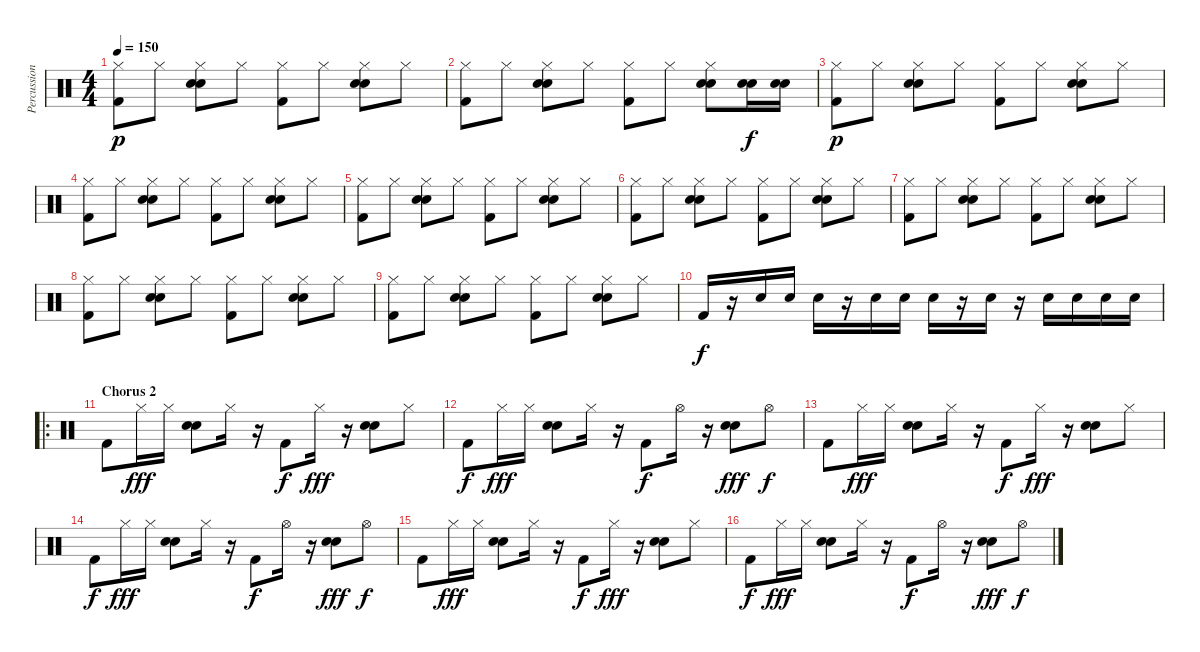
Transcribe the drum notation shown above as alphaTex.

\track ("Percussions" "Percussion") {instrument percussion}
\staff {score}
\articulation defaults
\ts (4 4)
\tempo 150
\clef neutral
\ks c
("Kick (hit) 2" "Hi-Hat (closed)").8{dy p} "Hi-Hat (closed)".8 ("Electric Snare (hit)" "Snare (hit) 2" "Hi-Hat (closed)").8 "Hi-Hat (closed)".8 ("Kick (hit) 2" "Hi-Hat (closed)").8 "Hi-Hat (closed)".8 ("Electric Snare (hit)" "Snare (hit) 2" "Hi-Hat (closed)").8 "Hi-Hat (closed)".8 |
("Kick (hit) 2" "Hi-Hat (closed)").8 "Hi-Hat (closed)".8 ("Electric Snare (hit)" "Snare (hit) 2" "Hi-Hat (closed)").8 "Hi-Hat (closed)".8 ("Kick (hit) 2" "Hi-Hat (closed)").8 "Hi-Hat (closed)".8 ("Electric Snare (hit)" "Snare (hit) 2" "Hi-Hat (closed)").8 ("Snare (hit) 2" "Electric Snare (hit)").16{dy f} ("Snare (hit) 2" "Electric Snare (hit)").16 |
("Kick (hit) 2" "Hi-Hat (closed)").8{dy p} "Hi-Hat (closed)".8 ("Electric Snare (hit)" "Snare (hit) 2" "Hi-Hat (closed)").8 "Hi-Hat (closed)".8 ("Kick (hit) 2" "Hi-Hat (closed)").8 "Hi-Hat (closed)".8 ("Electric Snare (hit)" "Snare (hit) 2" "Hi-Hat (closed)").8 "Hi-Hat (closed)".8 |
("Kick (hit) 2" "Hi-Hat (closed)").8 "Hi-Hat (closed)".8 ("Electric Snare (hit)" "Snare (hit) 2" "Hi-Hat (closed)").8 "Hi-Hat (closed)".8 ("Kick (hit) 2" "Hi-Hat (closed)").8 "Hi-Hat (closed)".8 ("Electric Snare (hit)" "Snare (hit) 2" "Hi-Hat (closed)").8 "Hi-Hat (closed)".8 |
("Kick (hit) 2" "Hi-Hat (closed)").8 "Hi-Hat (closed)".8 ("Electric Snare (hit)" "Snare (hit) 2" "Hi-Hat (closed)").8 "Hi-Hat (closed)".8 ("Kick (hit) 2" "Hi-Hat (closed)").8 "Hi-Hat (closed)".8 ("Electric Snare (hit)" "Snare (hit) 2" "Hi-Hat (closed)").8 "Hi-Hat (closed)".8 |
("Kick (hit) 2" "Hi-Hat (closed)").8 "Hi-Hat (closed)".8 ("Electric Snare (hit)" "Snare (hit) 2" "Hi-Hat (closed)").8 "Hi-Hat (closed)".8 ("Kick (hit) 2" "Hi-Hat (closed)").8 "Hi-Hat (closed)".8 ("Electric Snare (hit)" "Snare (hit) 2" "Hi-Hat (closed)").8 "Hi-Hat (closed)".8 |
("Kick (hit) 2" "Hi-Hat (closed)").8 "Hi-Hat (closed)".8 ("Electric Snare (hit)" "Snare (hit) 2" "Hi-Hat (closed)").8 "Hi-Hat (closed)".8 ("Kick (hit) 2" "Hi-Hat (closed)").8 "Hi-Hat (closed)".8 ("Electric Snare (hit)" "Snare (hit) 2" "Hi-Hat (closed)").8 "Hi-Hat (closed)".8 |
("Kick (hit) 2" "Hi-Hat (closed)").8 "Hi-Hat (closed)".8 ("Electric Snare (hit)" "Snare (hit) 2" "Hi-Hat (closed)").8 "Hi-Hat (closed)".8 ("Kick (hit) 2" "Hi-Hat (closed)").8 "Hi-Hat (closed)".8 ("Electric Snare (hit)" "Snare (hit) 2" "Hi-Hat (closed)").8 "Hi-Hat (closed)".8 |
("Kick (hit) 2" "Hi-Hat (closed)").8 "Hi-Hat (closed)".8 ("Electric Snare (hit)" "Snare (hit) 2" "Hi-Hat (closed)").8 "Hi-Hat (closed)".8 ("Kick (hit) 2" "Hi-Hat (closed)").8 "Hi-Hat (closed)".8 ("Electric Snare (hit)" "Snare (hit) 2" "Hi-Hat (closed)").8 "Hi-Hat (closed)".8 |
"Kick (hit) 2".16{dy f} r.16 "Snare (hit) 2".16 "Snare (hit) 2".16 "Snare (hit) 2".16 r.16 "Snare (hit) 2".16 "Snare (hit) 2".16 "Snare (hit) 2".16 r.16 "Snare (hit) 2".16 r.16 "Snare (hit) 2".16 "Snare (hit) 2".16 "Snare (hit) 2".16 "Snare (hit) 2".16 |
\ro
\section ("" "Chorus 2")
"Kick (hit) 2".8 "Hi-Hat (closed)".16{dy fff} "Hi-Hat (closed)".16 ("Electric Snare (hit)" "Snare (hit) 2").8 "Hi-Hat (closed)".16 r.16 "Kick (hit) 2".8{dy f} "Hi-Hat (closed)".16{dy fff} r.16 ("Electric Snare (hit)" "Snare (hit) 2").8 "Hi-Hat (closed)".8 |
"Kick (hit) 2".8{dy f} "Hi-Hat (closed)".16{dy fff} "Hi-Hat (closed)".16 ("Electric Snare (hit)" "Snare (hit) 2").8 "Hi-Hat (closed)".16 r.16 "Kick (hit) 2".8{dy f} "Hi-Hat (open)".16 r.16 ("Electric Snare (hit)" "Snare (hit) 2").8{dy fff} "Hi-Hat (open)".8{dy f} |
"Kick (hit) 2".8 "Hi-Hat (closed)".16{dy fff} "Hi-Hat (closed)".16 ("Electric Snare (hit)" "Snare (hit) 2").8 "Hi-Hat (closed)".16 r.16 "Kick (hit) 2".8{dy f} "Hi-Hat (closed)".16{dy fff} r.16 ("Electric Snare (hit)" "Snare (hit) 2").8 "Hi-Hat (closed)".8 |
"Kick (hit) 2".8{dy f} "Hi-Hat (closed)".16{dy fff} "Hi-Hat (closed)".16 ("Electric Snare (hit)" "Snare (hit) 2").8 "Hi-Hat (closed)".16 r.16 "Kick (hit) 2".8{dy f} "Hi-Hat (open)".16 r.16 ("Electric Snare (hit)" "Snare (hit) 2").8{dy fff} "Hi-Hat (open)".8{dy f} |
"Kick (hit) 2".8 "Hi-Hat (closed)".16{dy fff} "Hi-Hat (closed)".16 ("Electric Snare (hit)" "Snare (hit) 2").8 "Hi-Hat (closed)".16 r.16 "Kick (hit) 2".8{dy f} "Hi-Hat (closed)".16{dy fff} r.16 ("Electric Snare (hit)" "Snare (hit) 2").8 "Hi-Hat (closed)".8 |
"Kick (hit) 2".8{dy f} "Hi-Hat (closed)".16{dy fff} "Hi-Hat (closed)".16 ("Electric Snare (hit)" "Snare (hit) 2").8 "Hi-Hat (closed)".16 r.16 "Kick (hit) 2".8{dy f} "Hi-Hat (open)".16 r.16 ("Electric Snare (hit)" "Snare (hit) 2").8{dy fff} "Hi-Hat (open)".8{dy f}
